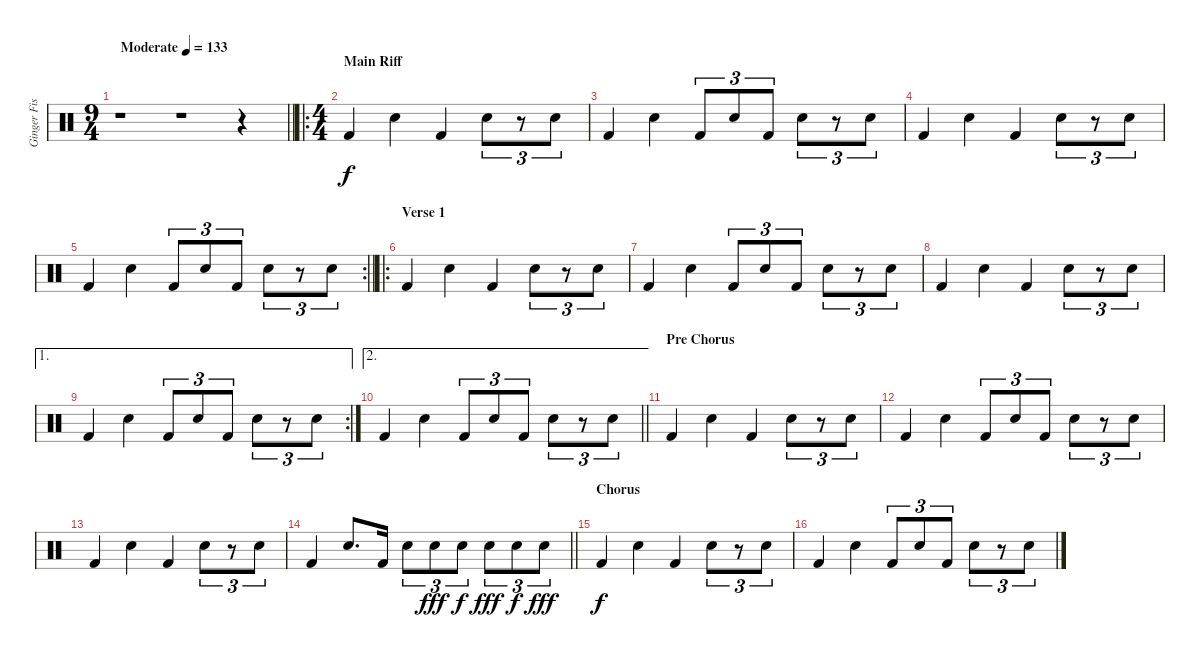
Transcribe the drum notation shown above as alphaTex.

\track ("Ginger Fish (Drums)" "Ginger Fis") {instrument percussion}
\staff {score}
\articulation defaults
\ts (9 4)
\tempo (133 "Moderate")
\clef neutral
\barLineRight lightlight
\ks c
r.1{dy f} r.1 r.4 |
\ro
\ts (4 4)
\section ("" "Main Riff")
"Kick (hit) 2".4 "Snare (hit) 2".4 "Kick (hit) 2".4 "Snare (hit) 2".8{tu (3 2)} r.8{tu (3 2)} "Snare (hit) 2".8{tu (3 2)} |
"Kick (hit) 2".4 "Snare (hit) 2".4 "Kick (hit) 2".8{tu (3 2)} "Snare (hit) 2".8{tu (3 2)} "Kick (hit) 2".8{tu (3 2)} "Snare (hit) 2".8{tu (3 2)} r.8{tu (3 2)} "Snare (hit) 2".8{tu (3 2)} |
"Kick (hit) 2".4 "Snare (hit) 2".4 "Kick (hit) 2".4 "Snare (hit) 2".8{tu (3 2)} r.8{tu (3 2)} "Snare (hit) 2".8{tu (3 2)} |
\rc 2
\barLineRight lightlight "Kick (hit) 2".4 "Snare (hit) 2".4 "Kick (hit) 2".8{tu (3 2)} "Snare (hit) 2".8{tu (3 2)} "Kick (hit) 2".8{tu (3 2)} "Snare (hit) 2".8{tu (3 2)}
r.8{tu (3 2)} "Snare (hit) 2".8{tu (3 2)} |
\ro
\section ("" "Verse 1")
"Kick (hit) 2".4 "Snare (hit) 2".4 "Kick (hit) 2".4 "Snare (hit) 2".8{tu (3 2)} r.8{tu (3 2)} "Snare (hit) 2".8{tu (3 2)} |
"Kick (hit) 2".4 "Snare (hit) 2".4 "Kick (hit) 2".8{tu (3 2)} "Snare (hit) 2".8{tu (3 2)} "Kick (hit) 2".8{tu (3 2)} "Snare (hit) 2".8{tu (3 2)} r.8{tu (3 2)} "Snare (hit) 2".8{tu (3 2)} |
"Kick (hit) 2".4 "Snare (hit) 2".4 "Kick (hit) 2".4 "Snare (hit) 2".8{tu (3 2)} r.8{tu (3 2)} "Snare (hit) 2".8{tu (3 2)} |
\ae 1
\rc 2 "Kick (hit) 2".4 "Snare (hit) 2".4 "Kick (hit) 2".8{tu (3 2)} "Snare (hit) 2".8{tu (3 2)} "Kick (hit) 2".8{tu (3 2)} "Snare (hit) 2".8{tu (3 2)}
r.8{tu (3 2)} "Snare (hit) 2".8{tu (3 2)} |
\ae 2
\barLineRight lightlight "Kick (hit) 2".4 "Snare (hit) 2".4 "Kick (hit) 2".8{tu (3 2)} "Snare (hit) 2".8{tu (3 2)} "Kick (hit) 2".8{tu (3 2)} "Snare (hit) 2".8{tu (3 2)}
r.8{tu (3 2)} "Snare (hit) 2".8{tu (3 2)} |
\section ("" "Pre Chorus")
"Kick (hit) 2".4 "Snare (hit) 2".4 "Kick (hit) 2".4 "Snare (hit) 2".8{tu (3 2)} r.8{tu (3 2)} "Snare (hit) 2".8{tu (3 2)} |
"Kick (hit) 2".4 "Snare (hit) 2".4 "Kick (hit) 2".8{tu (3 2)} "Snare (hit) 2".8{tu (3 2)} "Kick (hit) 2".8{tu (3 2)} "Snare (hit) 2".8{tu (3 2)} r.8{tu (3 2)} "Snare (hit) 2".8{tu (3 2)} |
"Kick (hit) 2".4 "Snare (hit) 2".4 "Kick (hit) 2".4 "Snare (hit) 2".8{tu (3 2)} r.8{tu (3 2)} "Snare (hit) 2".8{tu (3 2)} |
\barLineRight lightlight "Kick (hit) 2".4 "Snare (hit) 2".8{d} "Kick (hit) 2".16 "Snare (hit) 2".8{tu (3 2)} "Snare (hit) 2".8{tu (3 2) dy fff} "Snare (hit) 2".8{tu (3 2) dy f} "Snare (hit) 2".8{tu (3 2) dy fff} "Snare (hit) 2".8{tu (3 2) dy f} "Snare (hit) 2".8{tu (3 2) dy fff}
|
\section ("" "Chorus")
"Kick (hit) 2".4{dy f} "Snare (hit) 2".4 "Kick (hit) 2".4 "Snare (hit) 2".8{tu (3 2)} r.8{tu (3 2)} "Snare (hit) 2".8{tu (3 2)} |
"Kick (hit) 2".4 "Snare (hit) 2".4 "Kick (hit) 2".8{tu (3 2)} "Snare (hit) 2".8{tu (3 2)} "Kick (hit) 2".8{tu (3 2)} "Snare (hit) 2".8{tu (3 2)} r.8{tu (3 2)} "Snare (hit) 2".8{tu (3 2)}
